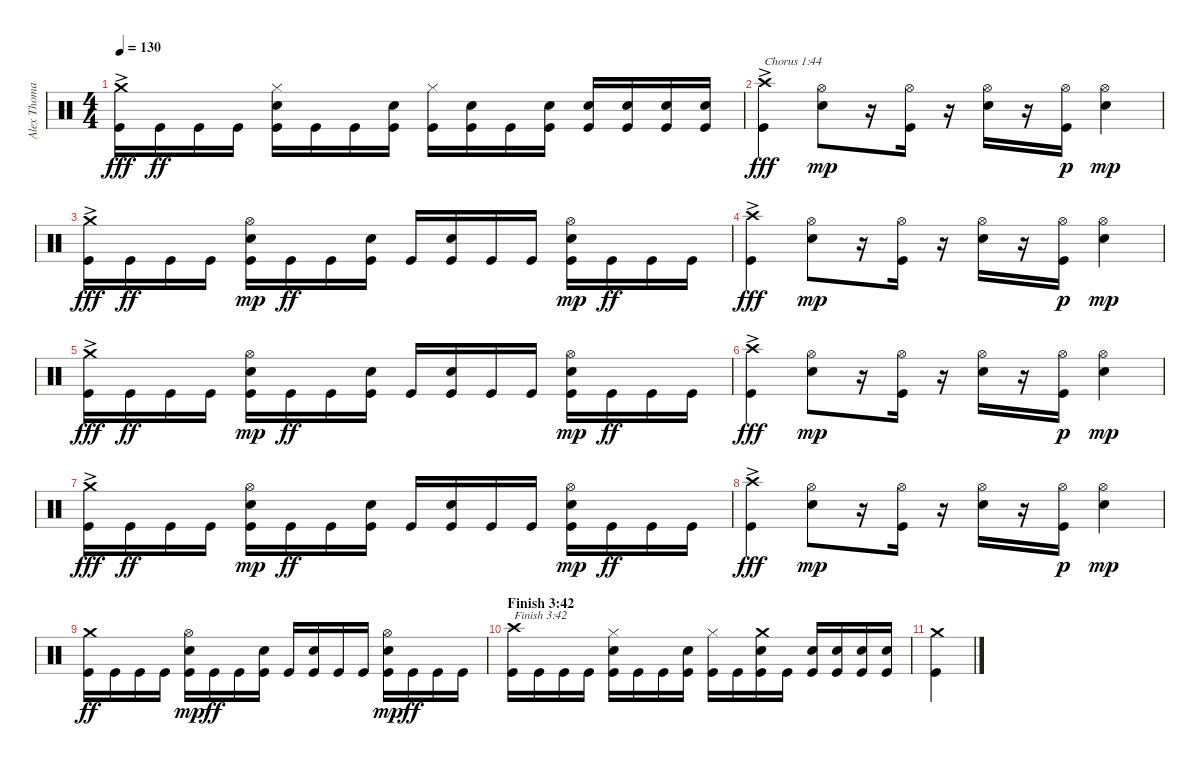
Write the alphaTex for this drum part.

\track ("Alex Thomas (Drums)" "Alex Thoma") {instrument percussion}
\staff {score}
\articulation defaults
\ts (4 4)
\tempo 130
\clef neutral
\ks c
("Kick (hit)" "Crash medium (hit)"{ac}).16{dy fff} "Kick (hit)".16{dy ff} "Kick (hit)".16 "Kick (hit)".16 ("Kick (hit)" "Electric Snare (hit)" "Hi-Hat (closed)").16 "Kick (hit)".16 "Kick (hit)".16 ("Kick (hit)" "Electric Snare (hit)").16 ("Kick (hit)" "Hi-Hat (closed)").16 ("Kick (hit)" "Electric Snare (hit)").16 "Kick (hit)".16 ("Kick (hit)" "Electric Snare (hit)").16 ("Kick (hit)" "Electric Snare (hit)").16 ("Kick (hit)" "Electric Snare (hit)").16 ("Kick (hit)" "Electric Snare (hit)").16 ("Kick (hit)" "Electric Snare (hit)").16 |
("Kick (hit)" "Crash high (hit)"{ac}).4{txt "Chorus 1:44" dy fff} ("Electric Snare (hit)" "Hi-Hat (open)").8{dy mp} r.16 ("Kick (hit)" "Hi-Hat (open)").16 r.16 ("Electric Snare (hit)" "Hi-Hat (open)").16 r.16 ("Kick (hit)" "Hi-Hat (open)").16{dy p} ("Electric Snare (hit)" "Hi-Hat (open)").4{dy mp} |
("Kick (hit)" "Crash medium (hit)"{ac}).16{dy fff} "Kick (hit)".16{dy ff} "Kick (hit)".16 "Kick (hit)".16 ("Kick (hit)" "Electric Snare (hit)" "Hi-Hat (open)").16{dy mp} "Kick (hit)".16{dy ff} "Kick (hit)".16 ("Kick (hit)" "Electric Snare (hit)").16 "Kick (hit)".16 ("Kick (hit)" "Electric Snare (hit)").16 "Kick (hit)".16 "Kick (hit)".16 ("Kick (hit)" "Electric Snare (hit)" "Hi-Hat (open)").16{dy mp} "Kick (hit)".16{dy ff} "Kick (hit)".16 "Kick (hit)".16 |
("Kick (hit)" "Crash high (hit)"{ac}).4{dy fff} ("Electric Snare (hit)" "Hi-Hat (open)").8{dy mp} r.16 ("Kick (hit)" "Hi-Hat (open)").16 r.16 ("Electric Snare (hit)" "Hi-Hat (open)").16 r.16 ("Kick (hit)" "Hi-Hat (open)").16{dy p} ("Electric Snare (hit)" "Hi-Hat (open)").4{dy mp} |
("Kick (hit)" "Crash medium (hit)"{ac}).16{dy fff} "Kick (hit)".16{dy ff} "Kick (hit)".16 "Kick (hit)".16 ("Kick (hit)" "Electric Snare (hit)" "Hi-Hat (open)").16{dy mp} "Kick (hit)".16{dy ff} "Kick (hit)".16 ("Kick (hit)" "Electric Snare (hit)").16 "Kick (hit)".16 ("Kick (hit)" "Electric Snare (hit)").16 "Kick (hit)".16 "Kick (hit)".16 ("Kick (hit)" "Electric Snare (hit)" "Hi-Hat (open)").16{dy mp} "Kick (hit)".16{dy ff} "Kick (hit)".16 "Kick (hit)".16 |
("Kick (hit)" "Crash high (hit)"{ac}).4{dy fff} ("Electric Snare (hit)" "Hi-Hat (open)").8{dy mp} r.16 ("Kick (hit)" "Hi-Hat (open)").16 r.16 ("Electric Snare (hit)" "Hi-Hat (open)").16 r.16 ("Kick (hit)" "Hi-Hat (open)").16{dy p} ("Electric Snare (hit)" "Hi-Hat (open)").4{dy mp} |
("Kick (hit)" "Crash medium (hit)"{ac}).16{dy fff} "Kick (hit)".16{dy ff} "Kick (hit)".16 "Kick (hit)".16 ("Kick (hit)" "Electric Snare (hit)" "Hi-Hat (open)").16{dy mp} "Kick (hit)".16{dy ff} "Kick (hit)".16 ("Kick (hit)" "Electric Snare (hit)").16 "Kick (hit)".16 ("Kick (hit)" "Electric Snare (hit)").16 "Kick (hit)".16 "Kick (hit)".16 ("Kick (hit)" "Electric Snare (hit)" "Hi-Hat (open)").16{dy mp} "Kick (hit)".16{dy ff} "Kick (hit)".16 "Kick (hit)".16 |
("Kick (hit)" "Crash high (hit)"{ac}).4{dy fff} ("Electric Snare (hit)" "Hi-Hat (open)").8{dy mp} r.16 ("Kick (hit)" "Hi-Hat (open)").16 r.16 ("Electric Snare (hit)" "Hi-Hat (open)").16 r.16 ("Kick (hit)" "Hi-Hat (open)").16{dy p} ("Electric Snare (hit)" "Hi-Hat (open)").4{dy mp} |
("Kick (hit)" "Crash medium (hit)").16{dy ff} "Kick (hit)".16 "Kick (hit)".16 "Kick (hit)".16 ("Kick (hit)" "Electric Snare (hit)" "Hi-Hat (open)").16{dy mp} "Kick (hit)".16{dy ff} "Kick (hit)".16 ("Kick (hit)" "Electric Snare (hit)").16 "Kick (hit)".16 ("Kick (hit)" "Electric Snare (hit)").16 "Kick (hit)".16 "Kick (hit)".16 ("Kick (hit)" "Electric Snare (hit)" "Hi-Hat (open)").16{dy mp} "Kick (hit)".16{dy ff} "Kick (hit)".16 "Kick (hit)".16 |
\section ("" "Finish 3:42")
("Kick (hit)" "Crash high (hit)").16{txt "Finish 3:42"} "Kick (hit)".16 "Kick (hit)".16 "Kick (hit)".16 ("Kick (hit)" "Electric Snare (hit)" "Hi-Hat (closed)").16 "Kick (hit)".16 "Kick (hit)".16 ("Kick (hit)" "Electric Snare (hit)").16 ("Kick (hit)" "Hi-Hat (closed)").16 "Kick (hit)".16 ("Kick (hit)" "Electric Snare (hit)" "Crash medium (hit)").16 "Kick (hit)".16 ("Kick (hit)" "Electric Snare (hit)").16 ("Kick (hit)" "Electric Snare (hit)").16 ("Kick (hit)" "Electric Snare (hit)").16 ("Kick (hit)" "Electric Snare (hit)").16 |
("Kick (hit)" "Crash medium (hit)").4
